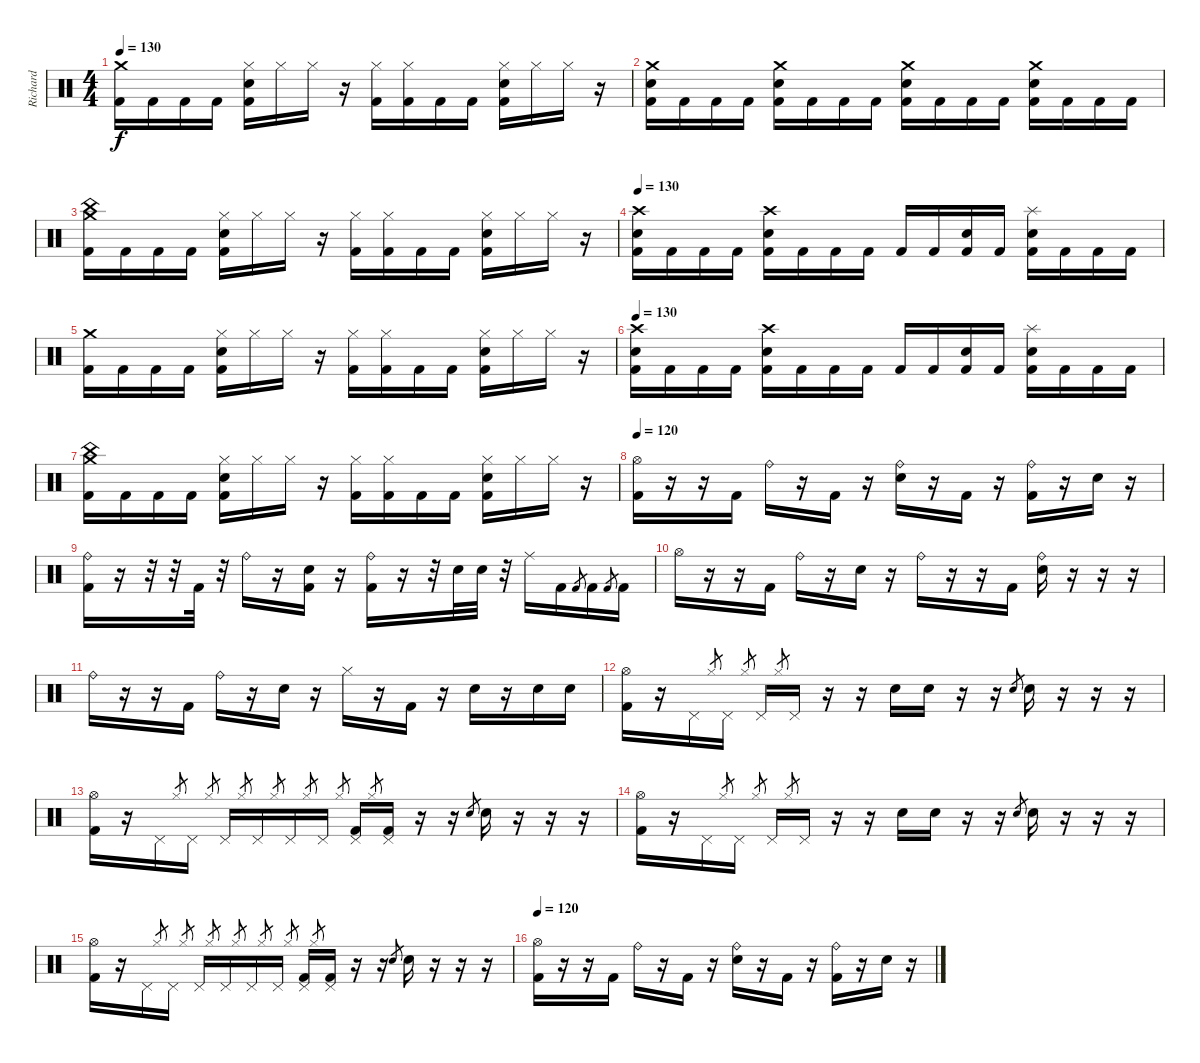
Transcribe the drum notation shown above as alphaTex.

\track ("Richard " "Richard ") {instrument percussion}
\staff {score}
\articulation defaults
\ts (4 4)
\tempo 130
\clef neutral
\ks c
("Crash medium (hit)" "Kick (hit) 2").16{dy f} "Kick (hit) 2".16 "Kick (hit) 2".16 "Kick (hit) 2".16 ("Hi-Hat (closed)" "Snare (hit) 2" "Kick (hit) 2").16 "Hi-Hat (closed)".16 "Hi-Hat (closed)".16 r.16 ("Hi-Hat (closed)" "Kick (hit) 2").16 ("Hi-Hat (closed)" "Kick (hit) 2").16 "Kick (hit) 2".16 "Kick (hit) 2".16 ("Hi-Hat (closed)" "Snare (hit) 2" "Kick (hit) 2").16 "Hi-Hat (closed)".16 "Hi-Hat (closed)".16 r.16 |
("Crash medium (hit)" "Snare (hit) 2" "Kick (hit) 2").16 "Kick (hit) 2".16 "Kick (hit) 2".16 "Kick (hit) 2".16 ("Crash medium (hit)" "Snare (hit) 2" "Kick (hit) 2").16 "Kick (hit) 2".16 "Kick (hit) 2".16 "Kick (hit) 2".16 ("Crash medium (hit)" "Snare (hit) 2" "Kick (hit) 2").16 "Kick (hit) 2".16 "Kick (hit) 2".16 "Kick (hit) 2".16 ("Crash medium (hit)" "Snare (hit) 2" "Kick (hit) 2").16 "Kick (hit) 2".16 "Kick (hit) 2".16 "Kick (hit) 2".16 |
("Crash medium (hit)" "China (hit)" "Kick (hit) 2").16 "Kick (hit) 2".16 "Kick (hit) 2".16 "Kick (hit) 2".16 ("Hi-Hat (closed)" "Snare (hit) 2" "Kick (hit) 2").16 "Hi-Hat (closed)".16 "Hi-Hat (closed)".16 r.16 ("Hi-Hat (closed)" "Kick (hit) 2").16 ("Hi-Hat (closed)" "Kick (hit) 2").16 "Kick (hit) 2".16 "Kick (hit) 2".16 ("Hi-Hat (closed)" "Snare (hit) 2" "Kick (hit) 2").16 "Hi-Hat (closed)".16 "Hi-Hat (closed)".16 r.16 |
\tempo 130
("Crash high (hit)" "Snare (hit) 2" "Kick (hit) 2").16 "Kick (hit) 2".16 "Kick (hit) 2".16 "Kick (hit) 2".16 ("Crash high (hit)" "Snare (hit) 2" "Kick (hit) 2").16 "Kick (hit) 2".16 "Kick (hit) 2".16 "Kick (hit) 2".16 "Kick (hit) 2".16 "Kick (hit) 2".16 ("Snare (hit) 2" "Kick (hit) 2").16 "Kick (hit) 2".16 ("Splash (hit)" "Snare (hit) 2" "Kick (hit) 2").16 "Kick (hit) 2".16 "Kick (hit) 2".16 "Kick (hit) 2".16 |
("Crash medium (hit)" "Kick (hit) 2").16 "Kick (hit) 2".16 "Kick (hit) 2".16 "Kick (hit) 2".16 ("Hi-Hat (closed)" "Snare (hit) 2" "Kick (hit) 2").16 "Hi-Hat (closed)".16 "Hi-Hat (closed)".16 r.16 ("Hi-Hat (closed)" "Kick (hit) 2").16 ("Hi-Hat (closed)" "Kick (hit) 2").16 "Kick (hit) 2".16 "Kick (hit) 2".16 ("Hi-Hat (closed)" "Snare (hit) 2" "Kick (hit) 2").16 "Hi-Hat (closed)".16 "Hi-Hat (closed)".16 r.16 |
\tempo 130
("Crash high (hit)" "Snare (hit) 2" "Kick (hit) 2").16 "Kick (hit) 2".16 "Kick (hit) 2".16 "Kick (hit) 2".16 ("Crash high (hit)" "Snare (hit) 2" "Kick (hit) 2").16 "Kick (hit) 2".16 "Kick (hit) 2".16 "Kick (hit) 2".16 "Kick (hit) 2".16 "Kick (hit) 2".16 ("Snare (hit) 2" "Kick (hit) 2").16 "Kick (hit) 2".16 ("Splash (hit)" "Snare (hit) 2" "Kick (hit) 2").16 "Kick (hit) 2".16 "Kick (hit) 2".16 "Kick (hit) 2".16 |
("Crash medium (hit)" "China (hit)" "Kick (hit) 2").16 "Kick (hit) 2".16 "Kick (hit) 2".16 "Kick (hit) 2".16 ("Hi-Hat (closed)" "Snare (hit) 2" "Kick (hit) 2").16 "Hi-Hat (closed)".16 "Hi-Hat (closed)".16 r.16 ("Hi-Hat (closed)" "Kick (hit) 2").16 ("Hi-Hat (closed)" "Kick (hit) 2").16 "Kick (hit) 2".16 "Kick (hit) 2".16 ("Hi-Hat (closed)" "Snare (hit) 2" "Kick (hit) 2").16 "Hi-Hat (closed)".16 "Hi-Hat (closed)".16 r.16 |
\tempo 120
("Hi-Hat (open)" "Kick (hit) 2").16 r.16 r.16 "Kick (hit) 2".16 "Ride (bell)".16 r.16 "Kick (hit) 2".16 r.16 ("Ride (bell)" "Snare (hit) 2").16 r.16 "Kick (hit) 2".16 r.16 ("Ride (bell)" "Kick (hit) 2").16 r.16 "Snare (hit) 2".16 r.16 |
("Ride (bell)" "Kick (hit) 2").16 r.16 r.32 r.32 "Kick (hit) 2".32 r.32 "Ride (bell)".16 r.16 ("Snare (hit) 2" "Kick (hit) 2").16 r.16 ("Ride (bell)" "Kick (hit) 2").16 r.16 r.32 "Snare (hit) 2".32 "Snare (hit) 2".32 r.32 "Ride (middle)".16 "Kick (hit) 2".16 "Kick (hit) 2".8{gr} "Kick (hit) 2".16 "Kick (hit) 2".8{gr} "Kick (hit) 2".16 |
"Hi-Hat (open)".16 r.16 r.16 "Kick (hit) 2".16 "Ride (bell)".16 r.16 "Snare (hit) 2".16 r.16 "Ride (bell)".16 r.16 r.16 "Kick (hit) 2".16 ("Ride (bell)" "Snare (hit) 2").16 r.16 r.16 r.16 |
"Ride (bell)".16 r.16 r.16 "Kick (hit) 2".16 "Ride (bell)".16 r.16 "Snare (hit) 2".16 r.16 "Hi-Hat (closed)".16 r.16 "Kick (hit) 2".16 r.16 "Snare (hit) 2".16 r.16 "Snare (hit) 2".16 "Snare (hit) 2".16 |
("Hi-Hat (open)" "Kick (hit) 2").16 r.16 "Pedal Hi-Hat (hit)".16 "Hi-Hat (closed)".8{gr} "Pedal Hi-Hat (hit)".16 "Hi-Hat (closed)".8{gr} "Pedal Hi-Hat (hit)".16 "Hi-Hat (closed)".8{gr} "Pedal Hi-Hat (hit)".16 r.16 r.16 "Snare (hit) 2".16 "Snare (hit) 2".16 r.16 r.16 "Snare (hit) 2".8{gr} "Snare (hit) 2".16 r.16 r.16 r.16 |
("Hi-Hat (open)" "Kick (hit) 2").16 r.16 "Pedal Hi-Hat (hit)".16 "Hi-Hat (closed)".8{gr} "Pedal Hi-Hat (hit)".16 "Hi-Hat (closed)".8{gr} "Pedal Hi-Hat (hit)".16 "Hi-Hat (closed)".8{gr} "Pedal Hi-Hat (hit)".16 "Hi-Hat (closed)".8{gr} "Pedal Hi-Hat (hit)".16 "Hi-Hat (closed)".8{gr} "Pedal Hi-Hat (hit)".16 "Hi-Hat (closed)".8{gr} ("Pedal Hi-Hat (hit)" "Kick (hit) 2").16 "Hi-Hat (closed)".8{gr} ("Pedal Hi-Hat (hit)" "Kick (hit) 2").16 r.16 r.16 "Snare (hit) 2".8{gr} "Snare (hit) 2".16 r.16 r.16 r.16 |
("Hi-Hat (open)" "Kick (hit) 2").16 r.16 "Pedal Hi-Hat (hit)".16 "Hi-Hat (closed)".8{gr} "Pedal Hi-Hat (hit)".16 "Hi-Hat (closed)".8{gr} "Pedal Hi-Hat (hit)".16 "Hi-Hat (closed)".8{gr} "Pedal Hi-Hat (hit)".16 r.16 r.16 "Snare (hit) 2".16 "Snare (hit) 2".16 r.16 r.16 "Snare (hit) 2".8{gr} "Snare (hit) 2".16 r.16 r.16 r.16 |
("Hi-Hat (open)" "Kick (hit) 2").16 r.16 "Pedal Hi-Hat (hit)".16 "Hi-Hat (closed)".8{gr} "Pedal Hi-Hat (hit)".16 "Hi-Hat (closed)".8{gr} "Pedal Hi-Hat (hit)".16 "Hi-Hat (closed)".8{gr} "Pedal Hi-Hat (hit)".16 "Hi-Hat (closed)".8{gr} "Pedal Hi-Hat (hit)".16 "Hi-Hat (closed)".8{gr} "Pedal Hi-Hat (hit)".16 "Hi-Hat (closed)".8{gr} ("Pedal Hi-Hat (hit)" "Kick (hit) 2").16 "Hi-Hat (closed)".8{gr} ("Pedal Hi-Hat (hit)" "Kick (hit) 2").16 r.16 r.16 "Snare (hit) 2".8{gr} "Snare (hit) 2".16 r.16 r.16 r.16 |
\tempo 120
("Hi-Hat (open)" "Kick (hit) 2").16 r.16 r.16 "Kick (hit) 2".16 "Ride (bell)".16 r.16 "Kick (hit) 2".16 r.16 ("Ride (bell)" "Snare (hit) 2").16 r.16 "Kick (hit) 2".16 r.16 ("Ride (bell)" "Kick (hit) 2").16 r.16 "Snare (hit) 2".16 r.16
